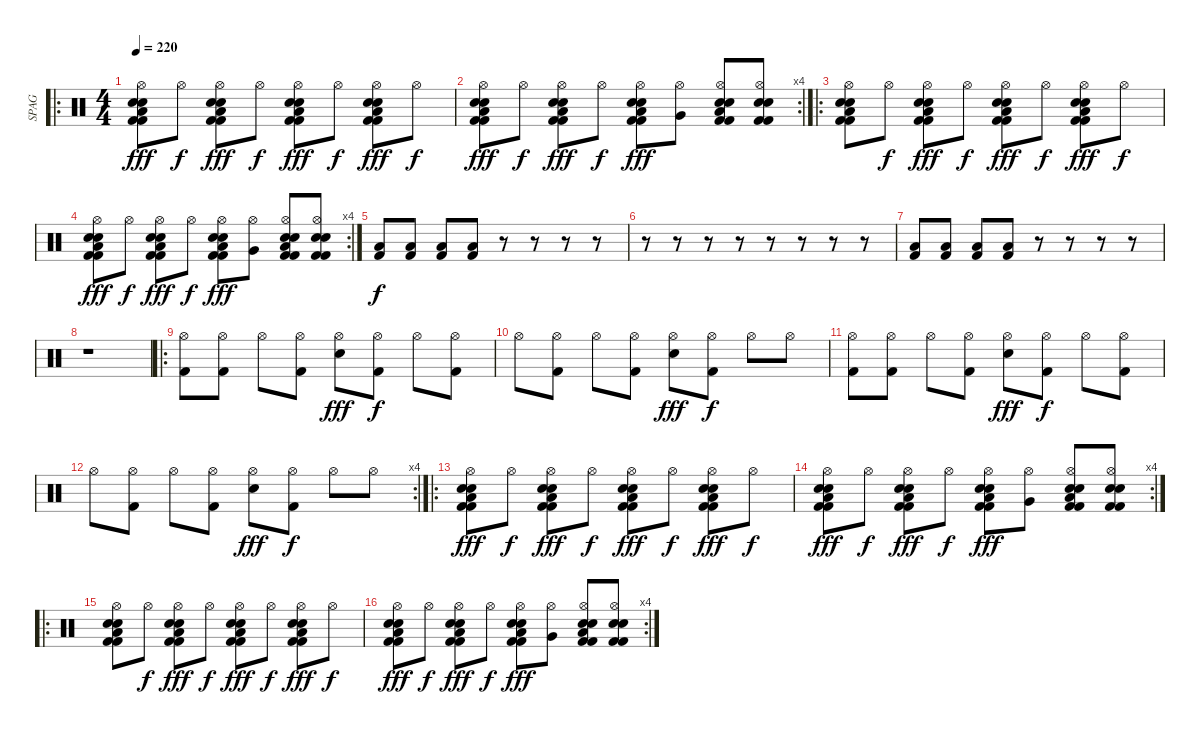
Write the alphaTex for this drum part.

\track ("SPAG" "SPAG") {instrument percussion}
\staff {score}
\articulation defaults
\ro
\ts (4 4)
\tempo 220
\clef neutral
\ks c
("Kick (hit) 2" "Electric Snare (hit)" "Low Floor Tom (hit)" "Hi-Hat (open)" "Snare (hit) 2" "Kick (hit) 2").8{dy fff} "Hi-Hat (open)".8{dy f} ("Kick (hit) 2" "Electric Snare (hit)" "Low Floor Tom (hit)" "Hi-Hat (open)" "Snare (hit) 2" "Kick (hit) 2").8{dy fff} "Hi-Hat (open)".8{dy f} ("Kick (hit) 2" "Electric Snare (hit)" "Low Floor Tom (hit)" "Hi-Hat (open)" "Snare (hit) 2" "Kick (hit) 2").8{dy fff} "Hi-Hat (open)".8{dy f} ("Kick (hit) 2" "Electric Snare (hit)" "Low Floor Tom (hit)" "Hi-Hat (open)" "Snare (hit) 2" "Kick (hit) 2").8{dy fff} "Hi-Hat (open)".8{dy f} |
\rc 4
("Kick (hit) 2" "Electric Snare (hit)" "Low Floor Tom (hit)" "Hi-Hat (open)" "Snare (hit) 2" "Kick (hit) 2").8{dy fff} "Hi-Hat (open)".8{dy f} ("Kick (hit) 2" "Electric Snare (hit)" "Low Floor Tom (hit)" "Hi-Hat (open)" "Snare (hit) 2" "Kick (hit) 2").8{dy fff} "Hi-Hat (open)".8{dy f} ("Kick (hit) 2" "Electric Snare (hit)" "Low Floor Tom (hit)" "Hi-Hat (open)" "Snare (hit) 2" "Kick (hit) 2").8{dy fff} ("Very Low Tom (hit)" "Hi-Hat (open)").8 ("Kick (hit) 2" "Electric Snare (hit)" "Low Floor Tom (hit)" "Hi-Hat (open)" "Snare (hit) 2" "Kick (hit) 2").8 ("Kick (hit) 2" "Electric Snare (hit)" "Hi-Hat (open)" "Snare (hit) 2" "Kick (hit) 2").8 |
\ro
("Kick (hit) 2" "Electric Snare (hit)" "Low Floor Tom (hit)" "Hi-Hat (open)" "Snare (hit) 2" "Kick (hit) 2").8 "Hi-Hat (open)".8{dy f} ("Kick (hit) 2" "Electric Snare (hit)" "Low Floor Tom (hit)" "Hi-Hat (open)" "Snare (hit) 2" "Kick (hit) 2").8{dy fff} "Hi-Hat (open)".8{dy f} ("Kick (hit) 2" "Electric Snare (hit)" "Low Floor Tom (hit)" "Hi-Hat (open)" "Snare (hit) 2" "Kick (hit) 2").8{dy fff} "Hi-Hat (open)".8{dy f} ("Kick (hit) 2" "Electric Snare (hit)" "Low Floor Tom (hit)" "Hi-Hat (open)" "Snare (hit) 2" "Kick (hit) 2").8{dy fff} "Hi-Hat (open)".8{dy f} |
\rc 4
("Kick (hit) 2" "Electric Snare (hit)" "Low Floor Tom (hit)" "Hi-Hat (open)" "Snare (hit) 2" "Kick (hit) 2").8{dy fff} "Hi-Hat (open)".8{dy f} ("Kick (hit) 2" "Electric Snare (hit)" "Low Floor Tom (hit)" "Hi-Hat (open)" "Snare (hit) 2" "Kick (hit) 2").8{dy fff} "Hi-Hat (open)".8{dy f} ("Kick (hit) 2" "Electric Snare (hit)" "Low Floor Tom (hit)" "Hi-Hat (open)" "Snare (hit) 2" "Kick (hit) 2").8{dy fff} ("Very Low Tom (hit)" "Hi-Hat (open)").8 ("Kick (hit) 2" "Electric Snare (hit)" "Low Floor Tom (hit)" "Hi-Hat (open)" "Snare (hit) 2" "Kick (hit) 2").8 ("Kick (hit) 2" "Electric Snare (hit)" "Hi-Hat (open)" "Snare (hit) 2" "Kick (hit) 2").8 |
("Kick (hit) 2" "Low Floor Tom (hit)").8{dy f} ("Kick (hit) 2" "Low Floor Tom (hit)").8 ("Kick (hit) 2" "Low Floor Tom (hit)").8 ("Kick (hit) 2" "Low Floor Tom (hit)").8 r.8 r.8 r.8 r.8 |
r.8 r.8 r.8 r.8 r.8 r.8 r.8 r.8 |
("Kick (hit) 2" "Low Floor Tom (hit)").8 ("Kick (hit) 2" "Low Floor Tom (hit)").8 ("Kick (hit) 2" "Low Floor Tom (hit)").8 ("Kick (hit) 2" "Low Floor Tom (hit)").8 r.8 r.8 r.8 r.8 |
r.1 |
\ro
("Hi-Hat (open)" "Kick (hit) 2").8 ("Hi-Hat (open)" "Kick (hit) 2").8 "Hi-Hat (open)".8 ("Hi-Hat (open)" "Kick (hit) 2").8 ("Hi-Hat (open)" "Snare (hit) 2").8{dy fff} ("Hi-Hat (open)" "Kick (hit) 2").8{dy f} "Hi-Hat (open)".8 ("Hi-Hat (open)" "Kick (hit) 2").8 |
"Hi-Hat (open)".8 ("Hi-Hat (open)" "Kick (hit) 2").8 "Hi-Hat (open)".8 ("Hi-Hat (open)" "Kick (hit) 2").8 ("Hi-Hat (open)" "Snare (hit) 2").8{dy fff} ("Hi-Hat (open)" "Kick (hit) 2").8{dy f} "Hi-Hat (open)".8 "Hi-Hat (open)".8 |
("Hi-Hat (open)" "Kick (hit) 2").8 ("Hi-Hat (open)" "Kick (hit) 2").8 "Hi-Hat (open)".8 ("Hi-Hat (open)" "Kick (hit) 2").8 ("Hi-Hat (open)" "Snare (hit) 2").8{dy fff} ("Hi-Hat (open)" "Kick (hit) 2").8{dy f} "Hi-Hat (open)".8 ("Hi-Hat (open)" "Kick (hit) 2").8 |
\rc 4 "Hi-Hat (open)".8
("Hi-Hat (open)" "Kick (hit) 2").8 "Hi-Hat (open)".8 ("Hi-Hat (open)" "Kick (hit) 2").8 ("Hi-Hat (open)" "Snare (hit) 2").8{dy fff} ("Hi-Hat (open)" "Kick (hit) 2").8{dy f} "Hi-Hat (open)".8 "Hi-Hat (open)".8 |
\ro
("Kick (hit) 2" "Electric Snare (hit)" "Low Floor Tom (hit)" "Hi-Hat (open)" "Snare (hit) 2" "Kick (hit) 2").8{dy fff} "Hi-Hat (open)".8{dy f} ("Kick (hit) 2" "Electric Snare (hit)" "Low Floor Tom (hit)" "Hi-Hat (open)" "Snare (hit) 2" "Kick (hit) 2").8{dy fff} "Hi-Hat (open)".8{dy f} ("Kick (hit) 2" "Electric Snare (hit)" "Low Floor Tom (hit)" "Hi-Hat (open)" "Snare (hit) 2" "Kick (hit) 2").8{dy fff} "Hi-Hat (open)".8{dy f} ("Kick (hit) 2" "Electric Snare (hit)" "Low Floor Tom (hit)" "Hi-Hat (open)" "Snare (hit) 2" "Kick (hit) 2").8{dy fff} "Hi-Hat (open)".8{dy f} |
\rc 4
("Kick (hit) 2" "Electric Snare (hit)" "Low Floor Tom (hit)" "Hi-Hat (open)" "Snare (hit) 2" "Kick (hit) 2").8{dy fff} "Hi-Hat (open)".8{dy f} ("Kick (hit) 2" "Electric Snare (hit)" "Low Floor Tom (hit)" "Hi-Hat (open)" "Snare (hit) 2" "Kick (hit) 2").8{dy fff} "Hi-Hat (open)".8{dy f} ("Kick (hit) 2" "Electric Snare (hit)" "Low Floor Tom (hit)" "Hi-Hat (open)" "Snare (hit) 2" "Kick (hit) 2").8{dy fff} ("Very Low Tom (hit)" "Hi-Hat (open)").8 ("Kick (hit) 2" "Electric Snare (hit)" "Low Floor Tom (hit)" "Hi-Hat (open)" "Snare (hit) 2" "Kick (hit) 2").8 ("Kick (hit) 2" "Electric Snare (hit)" "Hi-Hat (open)" "Snare (hit) 2" "Kick (hit) 2").8 |
\ro
("Kick (hit) 2" "Electric Snare (hit)" "Low Floor Tom (hit)" "Hi-Hat (open)" "Snare (hit) 2" "Kick (hit) 2").8 "Hi-Hat (open)".8{dy f} ("Kick (hit) 2" "Electric Snare (hit)" "Low Floor Tom (hit)" "Hi-Hat (open)" "Snare (hit) 2" "Kick (hit) 2").8{dy fff} "Hi-Hat (open)".8{dy f} ("Kick (hit) 2" "Electric Snare (hit)" "Low Floor Tom (hit)" "Hi-Hat (open)" "Snare (hit) 2" "Kick (hit) 2").8{dy fff} "Hi-Hat (open)".8{dy f} ("Kick (hit) 2" "Electric Snare (hit)" "Low Floor Tom (hit)" "Hi-Hat (open)" "Snare (hit) 2" "Kick (hit) 2").8{dy fff} "Hi-Hat (open)".8{dy f} |
\rc 4
("Kick (hit) 2" "Electric Snare (hit)" "Low Floor Tom (hit)" "Hi-Hat (open)" "Snare (hit) 2" "Kick (hit) 2").8{dy fff} "Hi-Hat (open)".8{dy f} ("Kick (hit) 2" "Electric Snare (hit)" "Low Floor Tom (hit)" "Hi-Hat (open)" "Snare (hit) 2" "Kick (hit) 2").8{dy fff} "Hi-Hat (open)".8{dy f} ("Kick (hit) 2" "Electric Snare (hit)" "Low Floor Tom (hit)" "Hi-Hat (open)" "Snare (hit) 2" "Kick (hit) 2").8{dy fff} ("Very Low Tom (hit)" "Hi-Hat (open)").8 ("Kick (hit) 2" "Electric Snare (hit)" "Low Floor Tom (hit)" "Hi-Hat (open)" "Snare (hit) 2" "Kick (hit) 2").8 ("Kick (hit) 2" "Electric Snare (hit)" "Hi-Hat (open)" "Snare (hit) 2" "Kick (hit) 2").8
